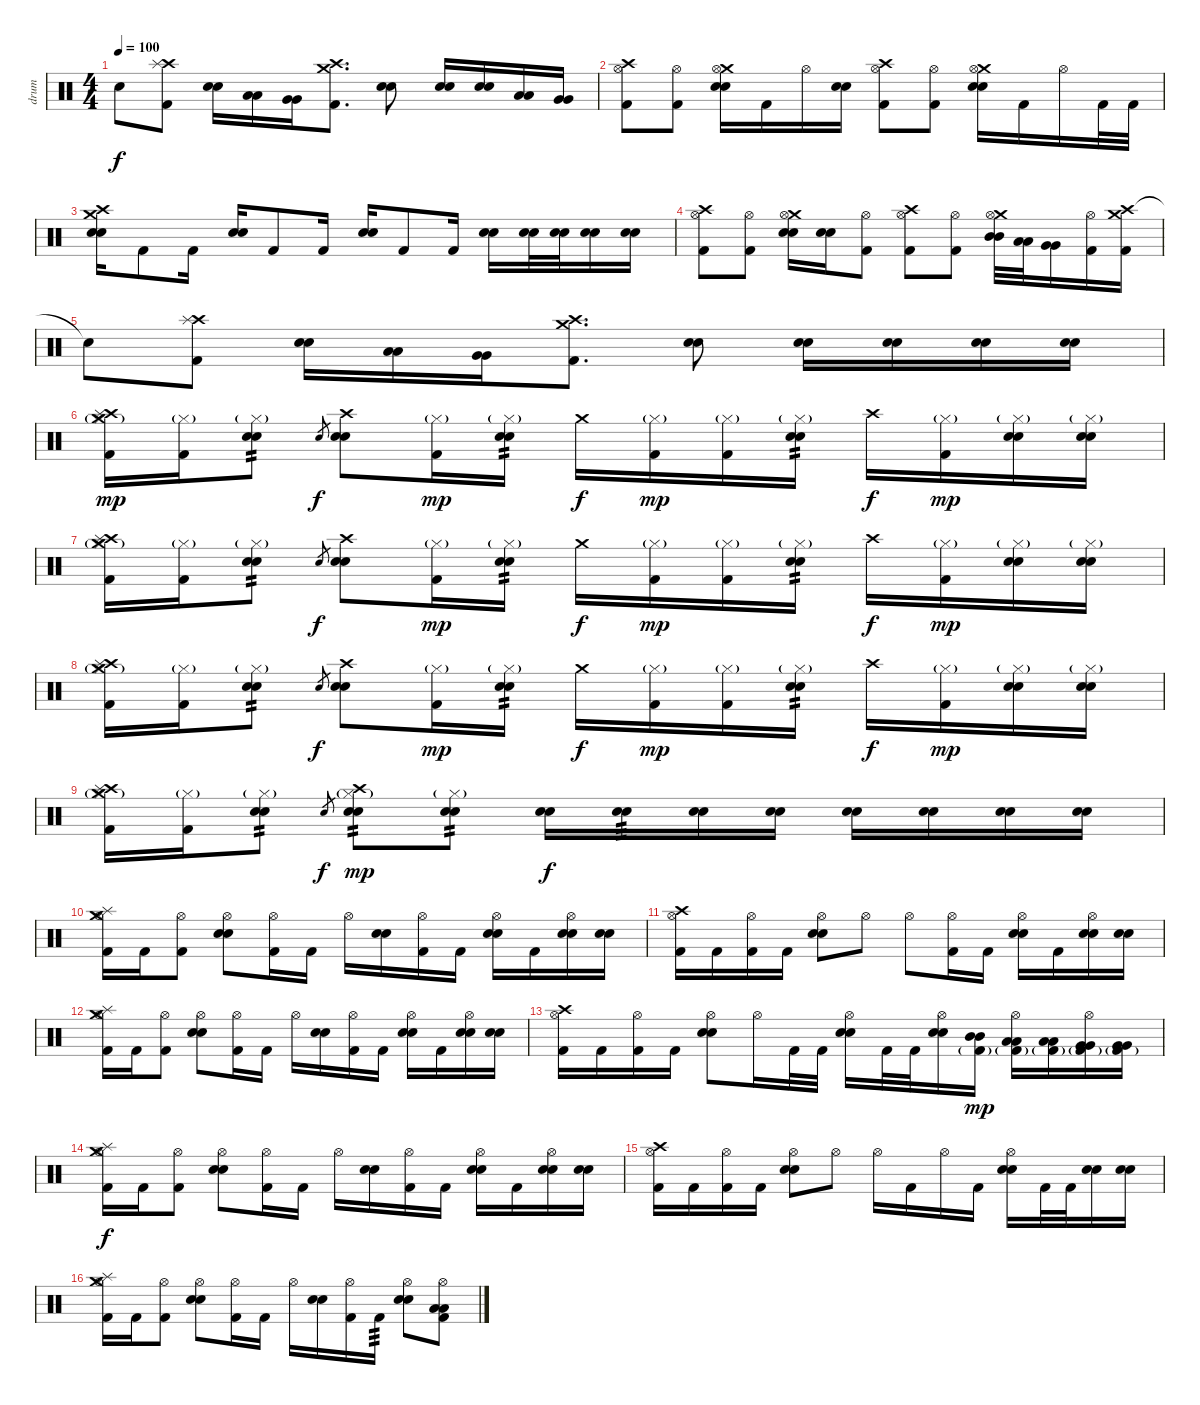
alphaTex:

\track ("drum" "drum") {instrument percussion}
\staff {score}
\articulation defaults
\ts (4 4)
\tempo 100
\clef neutral
\ks c "Snare (hit)"{t}.8{dy f}
("Crash high (hit)" "Splash (hit)" "Kick (hit) 2").8 ("Electric Snare (hit)" "Snare (hit) 2").16 ("Low Tom (hit)" "Low Tom (hit)").16 ("Very Low Tom (hit)" "Very Low Tom (hit)").16 ("Crash high (hit)" "Crash medium (hit)" "Kick (hit) 2").8{d} ("Electric Snare (hit)" "Snare (hit) 2").8 ("Electric Snare (hit)" "Snare (hit) 2").16 ("Electric Snare (hit)" "Snare (hit) 2").16 ("Low Tom (hit)" "Low Tom (hit)").16 ("Very Low Tom (hit)" "Very Low Tom (hit)").16 |
("Crash high (hit)" "Hi-Hat (open)" "Kick (hit) 2").8 ("Hi-Hat (open)" "Kick (hit) 2").8 ("Crash medium (hit)" "Hi-Hat (open)" "Electric Snare (hit)" "Snare (hit) 2").16 "Kick (hit) 2".16 "Hi-Hat (open)".16 ("Electric Snare (hit)" "Snare (hit) 2").16 ("Crash high (hit)" "Hi-Hat (open)" "Kick (hit) 2").8 ("Hi-Hat (open)" "Kick (hit) 2").8 ("Crash medium (hit)" "Hi-Hat (open)" "Electric Snare (hit)" "Snare (hit) 2").16 "Kick (hit) 2".16 "Hi-Hat (open)".16 "Kick (hit) 2".32 "Kick (hit) 2".32 |
("Crash medium (hit)" "Crash high (hit)" "Electric Snare (hit)" "Snare (hit) 2").16 "Kick (hit) 2".8 "Kick (hit) 2".16 ("Electric Snare (hit)" "Snare (hit) 2").16 "Kick (hit) 2".8 "Kick (hit) 2".16 ("Electric Snare (hit)" "Snare (hit) 2").16 "Kick (hit) 2".8 "Kick (hit) 2".16 ("Electric Snare (hit)" "Snare (hit) 2").16 ("Electric Snare (hit)" "Snare (hit) 2").32 ("Electric Snare (hit)" "Snare (hit) 2").32 ("Electric Snare (hit)" "Snare (hit) 2").16 ("Electric Snare (hit)" "Snare (hit) 2").16 |
("Crash high (hit)" "Hi-Hat (open)" "Kick (hit) 2").8 ("Hi-Hat (open)" "Kick (hit) 2").8 ("Crash medium (hit)" "Hi-Hat (open)" "Electric Snare (hit)" "Snare (hit) 2").16 ("Electric Snare (hit)" "Snare (hit) 2").16 ("Hi-Hat (open)" "Kick (hit) 2").8 ("Crash high (hit)" "Hi-Hat (open)" "Kick (hit) 2").8 ("Hi-Hat (open)" "Kick (hit) 2").8 ("Crash medium (hit)" "Hi-Hat (open)" "Mid Tom (hit)" "Mid Tom (hit)").32 ("Low Tom (hit)" "Low Tom (hit)").32 ("Very Low Tom (hit)" "Very Low Tom (hit)").16 ("Hi-Hat (open)" "Kick (hit) 2").16 ("Crash high (hit)" "Crash medium (hit)" "Kick (hit) 2").16 |
"Snare (hit)"{t}.8 ("Crash high (hit)" "Splash (hit)" "Kick (hit) 2").8 ("Electric Snare (hit)" "Snare (hit) 2").16 ("Low Tom (hit)" "Low Tom (hit)").16 ("Very Low Tom (hit)" "Very Low Tom (hit)").16 ("Crash high (hit)" "Crash medium (hit)" "Kick (hit) 2").8{d} ("Electric Snare (hit)" "Snare (hit) 2").8 ("Electric Snare (hit)" "Snare (hit) 2").16 ("Electric Snare (hit)" "Snare (hit) 2").16 ("Electric Snare (hit)" "Snare (hit) 2").16 ("Electric Snare (hit)" "Snare (hit) 2").16 |
("Crash medium (hit)" "Crash high (hit)" "Splash (hit)" "Kick (hit) 2" "Hi-Hat (closed)"{g}).16{dy mp} ("Kick (hit) 2" "Hi-Hat (closed)"{g}).16 ("Electric Snare (hit)" "Snare (hit) 2" "Hi-Hat (closed)"{g}).8{bd 120 tp 2} "Electric Snare (hit)".8{gr dy f} ("Crash high (hit)" "Electric Snare (hit)" "Snare (hit) 2").8 ("Kick (hit) 2" "Hi-Hat (closed)"{g}).16{dy mp} ("Electric Snare (hit)" "Snare (hit) 2" "Hi-Hat (closed)"{g}).16{tp 2} "Crash medium (hit)".16{dy f} ("Kick (hit) 2" "Hi-Hat (closed)"{g}).16{dy mp} ("Kick (hit) 2" "Hi-Hat (closed)"{g}).16 ("Electric Snare (hit)" "Snare (hit) 2" "Hi-Hat (closed)"{g}).16{tp 2} "Crash high (hit)".16{dy f} ("Kick (hit) 2" "Hi-Hat (closed)"{g}).16{dy mp} ("Electric Snare (hit)" "Snare (hit) 2" "Hi-Hat (closed)"{g}).16 ("Electric Snare (hit)" "Snare (hit) 2" "Hi-Hat (closed)"{g}).16 |
("Crash medium (hit)" "Crash high (hit)" "Splash (hit)" "Kick (hit) 2" "Hi-Hat (closed)"{g}).16 ("Kick (hit) 2" "Hi-Hat (closed)"{g}).16 ("Electric Snare (hit)" "Snare (hit) 2" "Hi-Hat (closed)"{g}).8{bd 120 tp 2} "Electric Snare (hit)".8{gr dy f} ("Crash high (hit)" "Electric Snare (hit)" "Snare (hit) 2").8 ("Kick (hit) 2" "Hi-Hat (closed)"{g}).16{dy mp} ("Electric Snare (hit)" "Snare (hit) 2" "Hi-Hat (closed)"{g}).16{tp 2} "Crash medium (hit)".16{dy f} ("Kick (hit) 2" "Hi-Hat (closed)"{g}).16{dy mp} ("Kick (hit) 2" "Hi-Hat (closed)"{g}).16 ("Electric Snare (hit)" "Snare (hit) 2" "Hi-Hat (closed)"{g}).16{tp 2} "Crash high (hit)".16{dy f} ("Kick (hit) 2" "Hi-Hat (closed)"{g}).16{dy mp} ("Electric Snare (hit)" "Snare (hit) 2" "Hi-Hat (closed)"{g}).16 ("Electric Snare (hit)" "Snare (hit) 2" "Hi-Hat (closed)"{g}).16 |
("Crash medium (hit)" "Crash high (hit)" "Splash (hit)" "Kick (hit) 2" "Hi-Hat (closed)"{g}).16 ("Kick (hit) 2" "Hi-Hat (closed)"{g}).16 ("Electric Snare (hit)" "Snare (hit) 2" "Hi-Hat (closed)"{g}).8{bd 120 tp 2} "Electric Snare (hit)".8{gr dy f} ("Crash high (hit)" "Electric Snare (hit)" "Snare (hit) 2").8 ("Kick (hit) 2" "Hi-Hat (closed)"{g}).16{dy mp} ("Electric Snare (hit)" "Snare (hit) 2" "Hi-Hat (closed)"{g}).16{tp 2} "Crash medium (hit)".16{dy f} ("Kick (hit) 2" "Hi-Hat (closed)"{g}).16{dy mp} ("Kick (hit) 2" "Hi-Hat (closed)"{g}).16 ("Electric Snare (hit)" "Snare (hit) 2" "Hi-Hat (closed)"{g}).16{tp 2} "Crash high (hit)".16{dy f} ("Kick (hit) 2" "Hi-Hat (closed)"{g}).16{dy mp} ("Electric Snare (hit)" "Snare (hit) 2" "Hi-Hat (closed)"{g}).16 ("Electric Snare (hit)" "Snare (hit) 2" "Hi-Hat (closed)"{g}).16 |
("Crash medium (hit)" "Crash high (hit)" "Splash (hit)" "Kick (hit) 2" "Hi-Hat (closed)"{g}).16 ("Kick (hit) 2" "Hi-Hat (closed)"{g}).16 ("Electric Snare (hit)" "Snare (hit) 2" "Hi-Hat (closed)"{g}).8{bd 120 tp 2} "Snare (hit) 2".8{gr dy f} ("Crash high (hit)" "Electric Snare (hit)" "Snare (hit) 2" "Hi-Hat (closed)"{g}).8{tp 2 dy mp} ("Electric Snare (hit)" "Snare (hit) 2" "Hi-Hat (closed)"{g}).8{bd 120 tp 2} ("Electric Snare (hit)" "Snare (hit) 2").16{dy f} ("Electric Snare (hit)" "Snare (hit) 2").16{tp 3} ("Electric Snare (hit)" "Snare (hit) 2").16 ("Electric Snare (hit)" "Snare (hit) 2").16 ("Electric Snare (hit)" "Snare (hit) 2").16 ("Electric Snare (hit)" "Snare (hit) 2").16 ("Electric Snare (hit)" "Snare (hit) 2").16 ("Electric Snare (hit)" "Snare (hit) 2").16 |
("Crash medium (hit)" "Hi-Hat (open)" "Splash (hit)" "Kick (hit) 2").16 "Kick (hit) 2".16 ("Hi-Hat (open)" "Kick (hit) 2").8 ("Hi-Hat (open)" "Electric Snare (hit)" "Snare (hit) 2").8 ("Hi-Hat (open)" "Kick (hit) 2").16 "Kick (hit) 2".16 "Hi-Hat (open)".16 ("Electric Snare (hit)" "Snare (hit) 2").16 ("Hi-Hat (open)" "Kick (hit) 2").16 "Kick (hit) 2".16 ("Hi-Hat (open)" "Electric Snare (hit)" "Snare (hit) 2").16 "Kick (hit) 2".16 ("Hi-Hat (open)" "Electric Snare (hit)" "Snare (hit) 2").16 ("Electric Snare (hit)" "Snare (hit) 2").16 |
("Crash high (hit)" "Hi-Hat (open)" "Kick (hit) 2").16 "Kick (hit) 2".16 ("Hi-Hat (open)" "Kick (hit) 2").16 "Kick (hit) 2".16 ("Hi-Hat (open)" "Electric Snare (hit)" "Snare (hit) 2").8 "Hi-Hat (open)".8 "Hi-Hat (open)".8 ("Hi-Hat (open)" "Kick (hit) 2").16 "Kick (hit) 2".16 ("Hi-Hat (open)" "Electric Snare (hit)" "Snare (hit) 2").16 "Kick (hit) 2".16 ("Hi-Hat (open)" "Electric Snare (hit)" "Snare (hit) 2").16 ("Electric Snare (hit)" "Snare (hit) 2").16 |
("Crash medium (hit)" "Hi-Hat (open)" "Splash (hit)" "Kick (hit) 2").16 "Kick (hit) 2".16 ("Hi-Hat (open)" "Kick (hit) 2").8 ("Hi-Hat (open)" "Electric Snare (hit)" "Snare (hit) 2").8 ("Hi-Hat (open)" "Kick (hit) 2").16 "Kick (hit) 2".16 "Hi-Hat (open)".16 ("Electric Snare (hit)" "Snare (hit) 2").16 ("Hi-Hat (open)" "Kick (hit) 2").16 "Kick (hit) 2".16 ("Hi-Hat (open)" "Electric Snare (hit)" "Snare (hit) 2").16 "Kick (hit) 2".16 ("Hi-Hat (open)" "Electric Snare (hit)" "Snare (hit) 2").16 ("Electric Snare (hit)" "Snare (hit) 2").16 |
("Crash high (hit)" "Hi-Hat (open)" "Kick (hit) 2").16 "Kick (hit) 2".16 ("Hi-Hat (open)" "Kick (hit) 2").16 "Kick (hit) 2".16 ("Hi-Hat (open)" "Electric Snare (hit)" "Snare (hit) 2").8 "Hi-Hat (open)".16 "Kick (hit) 2".32 "Kick (hit) 2".32 ("Hi-Hat (open)" "Electric Snare (hit)" "Snare (hit) 2").16 "Kick (hit) 2".32 "Kick (hit) 2".32 ("Hi-Hat (open)" "Electric Snare (hit)" "Snare (hit) 2").16 ("Mid Tom (hit)" "Mid Tom (hit)" "Kick (hit) 2"{g}).16{dy mp} ("Hi-Hat (open)" "Low Tom (hit)" "Low Tom (hit)" "Kick (hit) 2"{g}).16 ("Low Tom (hit)" "Low Tom (hit)" "Kick (hit) 2"{g}).16 ("Hi-Hat (open)" "Very Low Tom (hit)" "Very Low Tom (hit)" "Kick (hit) 2"{g}).16 ("Very Low Tom (hit)" "Very Low Tom (hit)" "Kick (hit) 2"{g}).16 |
("Crash medium (hit)" "Hi-Hat (open)" "Splash (hit)" "Kick (hit) 2").16{dy f} "Kick (hit) 2".16 ("Hi-Hat (open)" "Kick (hit) 2").8 ("Hi-Hat (open)" "Electric Snare (hit)" "Snare (hit) 2").8 ("Hi-Hat (open)" "Kick (hit) 2").16 "Kick (hit) 2".16 "Hi-Hat (open)".16 ("Electric Snare (hit)" "Snare (hit) 2").16 ("Hi-Hat (open)" "Kick (hit) 2").16 "Kick (hit) 2".16 ("Hi-Hat (open)" "Electric Snare (hit)" "Snare (hit) 2").16 "Kick (hit) 2".16 ("Hi-Hat (open)" "Electric Snare (hit)" "Snare (hit) 2").16 ("Electric Snare (hit)" "Snare (hit) 2").16 |
("Crash high (hit)" "Hi-Hat (open)" "Kick (hit) 2").16 "Kick (hit) 2".16 ("Hi-Hat (open)" "Kick (hit) 2").16 "Kick (hit) 2".16 ("Hi-Hat (open)" "Electric Snare (hit)" "Snare (hit) 2").8 "Hi-Hat (open)".8 "Hi-Hat (open)".16 "Kick (hit) 2".16 "Hi-Hat (open)".16 "Kick (hit) 2".16 ("Hi-Hat (open)" "Electric Snare (hit)" "Snare (hit) 2").16 "Kick (hit) 2".32 "Kick (hit) 2".32 ("Electric Snare (hit)" "Snare (hit) 2").16 ("Electric Snare (hit)" "Snare (hit) 2").16 |
("Crash medium (hit)" "Hi-Hat (open)" "Splash (hit)" "Kick (hit) 2").16 "Kick (hit) 2".16 ("Hi-Hat (open)" "Kick (hit) 2").8 ("Hi-Hat (open)" "Electric Snare (hit)" "Snare (hit) 2").8 ("Hi-Hat (open)" "Kick (hit) 2").16 "Kick (hit) 2".16 "Hi-Hat (open)".16 ("Electric Snare (hit)" "Snare (hit) 2").16 ("Hi-Hat (open)" "Kick (hit) 2").16 "Kick (hit) 2".16{tp 3} ("Hi-Hat (open)" "Electric Snare (hit)" "Snare (hit) 2").8 ("Hi-Hat (open)" "Low Floor Tom (hit)" "Low Tom (hit)" "Kick (hit) 2").8
